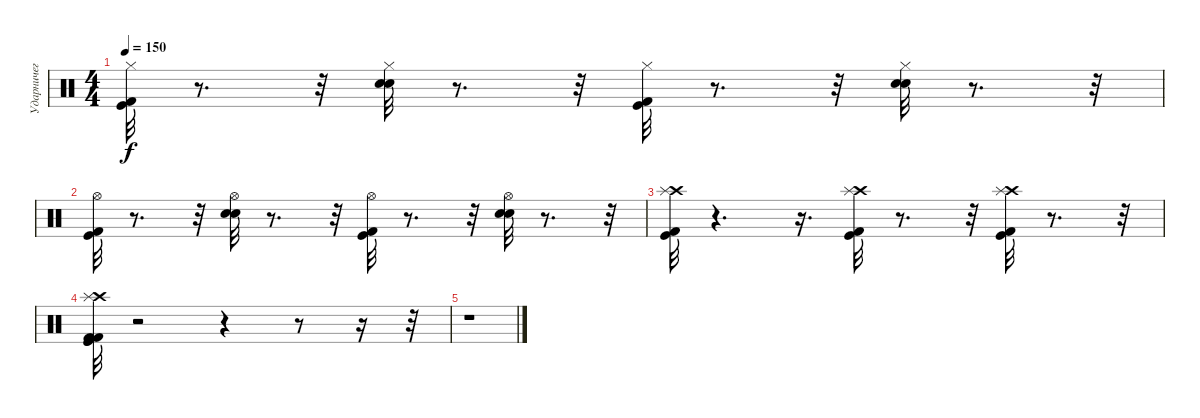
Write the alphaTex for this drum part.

\track ("Ударничег" "Ударничег") {instrument percussion}
\staff {score}
\articulation defaults
\ts (4 4)
\tempo 150
\clef neutral
\ks c
("Hi-Hat (closed)" "Kick (hit) 2" "Kick (hit)").32{dy f} r.8{d} r.32 ("Hi-Hat (closed)" "Snare (hit) 2" "Electric Snare (hit)").32 r.8{d} r.32 ("Hi-Hat (closed)" "Kick (hit) 2" "Kick (hit)").32 r.8{d} r.32 ("Hi-Hat (closed)" "Snare (hit) 2" "Electric Snare (hit)").32 r.8{d} r.32 |
("Hi-Hat (open)" "Kick (hit) 2" "Kick (hit)").32 r.8{d} r.32 ("Hi-Hat (open)" "Snare (hit) 2" "Electric Snare (hit)").32 r.8{d} r.32 ("Hi-Hat (open)" "Kick (hit) 2" "Kick (hit)").32 r.8{d} r.32 ("Hi-Hat (open)" "Snare (hit) 2" "Electric Snare (hit)").32 r.8{d} r.32 |
("Crash high (hit)" "Splash (hit)" "Kick (hit) 2" "Kick (hit)").32 r.4{d} r.16{d} ("Crash high (hit)" "Splash (hit)" "Kick (hit) 2" "Kick (hit)").32 r.8{d} r.32 ("Crash high (hit)" "Kick (hit)" "Kick (hit) 2" "Splash (hit)").32 r.8{d} r.32 |
("Crash high (hit)" "Splash (hit)" "Kick (hit)" "Kick (hit) 2" "Kick (hit)" "Kick (hit) 2").32 r.2 r.4 r.8 r.16 r.32 |
r.1
